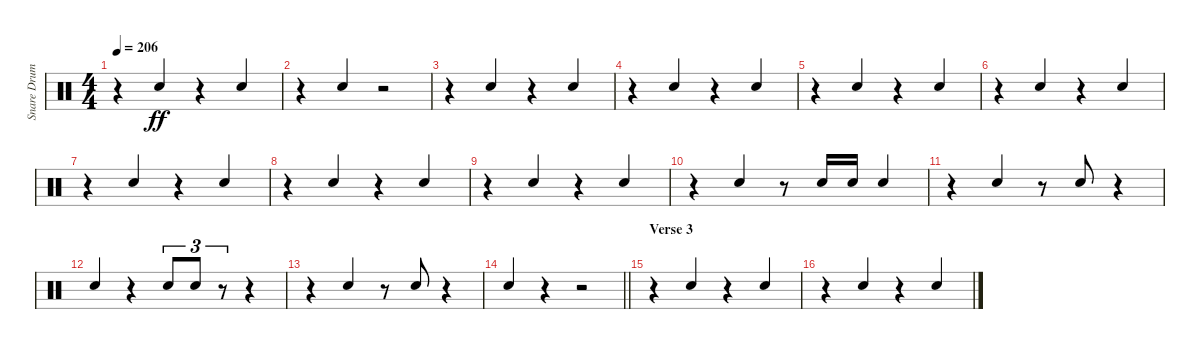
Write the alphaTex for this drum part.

\track ("Snare Drum" "Snare Drum") {instrument percussion}
\staff {score}
\articulation defaults
\ts (4 4)
\tempo 206
\clef neutral
\ks c
r.4{dy ff} "Electric Snare (hit)".4{beam Up} r.4 "Electric Snare (hit)".4{beam Up} |
r.4 "Electric Snare (hit)".4{beam Up} r.2 |
r.4 "Electric Snare (hit)".4{beam Up} r.4 "Electric Snare (hit)".4{beam Up} |
r.4 "Electric Snare (hit)".4{beam Up} r.4 "Electric Snare (hit)".4{beam Up} |
r.4 "Electric Snare (hit)".4{beam Up} r.4 "Electric Snare (hit)".4{beam Up} |
r.4 "Electric Snare (hit)".4{beam Up} r.4 "Electric Snare (hit)".4{beam Up} |
r.4 "Electric Snare (hit)".4{beam Up} r.4 "Electric Snare (hit)".4{beam Up} |
r.4 "Electric Snare (hit)".4{beam Up} r.4 "Electric Snare (hit)".4{beam Up} |
r.4 "Electric Snare (hit)".4{beam Up} r.4 "Electric Snare (hit)".4{beam Up} |
r.4 "Electric Snare (hit)".4{beam Up} r.8 "Electric Snare (hit)".16{beam Up} "Electric Snare (hit)".16{beam Up} "Electric Snare (hit)".4{beam Up} |
r.4 "Electric Snare (hit)".4{beam Up} r.8 "Electric Snare (hit)".8{beam Up} r.4 |
"Electric Snare (hit)".4{beam Up} r.4 "Electric Snare (hit)".8{tu (3 2) beam Up} "Electric Snare (hit)".8{tu (3 2) beam Up} r.8{tu (3 2) beam Up} r.4 |
r.4 "Electric Snare (hit)".4{beam Up} r.8 "Electric Snare (hit)".8{beam Up} r.4 |
\barLineRight lightlight "Electric Snare (hit)".4{beam Up}
r.4 r.2 |
\section ("" "Verse 3")
r.4 "Electric Snare (hit)".4{beam Up} r.4 "Electric Snare (hit)".4{beam Up} |
r.4 "Electric Snare (hit)".4{beam Up} r.4 "Electric Snare (hit)".4{beam Up}
